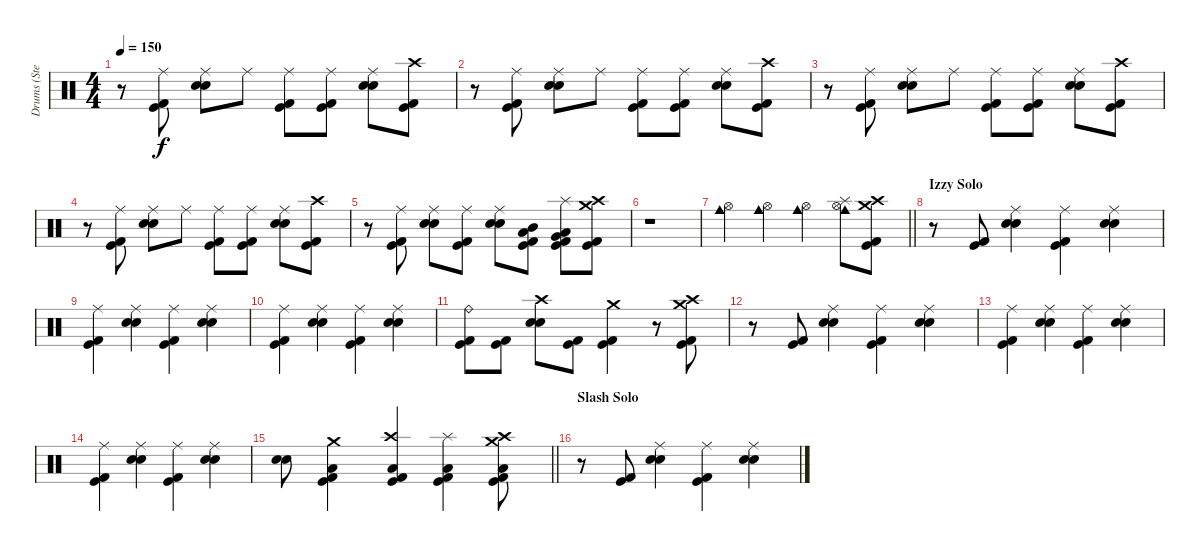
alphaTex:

\track ("Drums (Steven)" "Drums (Ste") {instrument percussion}
\staff {score}
\articulation defaults
\ts (4 4)
\tempo 150
\clef neutral
\ks c
r.8{dy f} ("Kick (hit) 2" "Kick (hit)" "Ride (middle)").8 ("Electric Snare (hit)" "Snare (hit) 2" "Ride (middle)").8 "Ride (middle)".8 ("Kick (hit) 2" "Kick (hit)" "Ride (middle)").8 ("Kick (hit) 2" "Kick (hit)" "Ride (middle)").8 ("Electric Snare (hit)" "Snare (hit) 2" "Ride (middle)").8 ("Kick (hit) 2" "Kick (hit)" "Crash high (hit)").8 |
r.8 ("Kick (hit) 2" "Kick (hit)" "Ride (middle)").8 ("Electric Snare (hit)" "Snare (hit) 2" "Ride (middle)").8 "Ride (middle)".8 ("Kick (hit) 2" "Kick (hit)" "Ride (middle)").8 ("Kick (hit) 2" "Kick (hit)" "Ride (middle)").8 ("Electric Snare (hit)" "Snare (hit) 2" "Ride (middle)").8 ("Kick (hit) 2" "Kick (hit)" "Crash high (hit)").8 |
r.8 ("Kick (hit) 2" "Kick (hit)" "Ride (middle)").8 ("Electric Snare (hit)" "Snare (hit) 2" "Ride (middle)").8 "Ride (middle)".8 ("Kick (hit) 2" "Kick (hit)" "Ride (middle)").8 ("Kick (hit) 2" "Kick (hit)" "Ride (middle)").8 ("Electric Snare (hit)" "Snare (hit) 2" "Ride (middle)").8 ("Kick (hit) 2" "Kick (hit)" "Crash high (hit)").8 |
r.8 ("Kick (hit) 2" "Kick (hit)" "Ride (middle)").8 ("Electric Snare (hit)" "Snare (hit) 2" "Ride (middle)").8 "Ride (middle)".8 ("Kick (hit) 2" "Kick (hit)" "Ride (middle)").8 ("Kick (hit) 2" "Kick (hit)" "Ride (middle)").8 ("Electric Snare (hit)" "Snare (hit) 2" "Ride (middle)").8 ("Kick (hit) 2" "Kick (hit)" "Crash high (hit)").8 |
r.8 ("Kick (hit) 2" "Kick (hit)" "Ride (middle)").8 ("Electric Snare (hit)" "Snare (hit) 2" "Ride (middle)").8 ("Kick (hit) 2" "Kick (hit)" "Ride (middle)").8 ("Electric Snare (hit)" "Snare (hit) 2" "Ride (middle)").8 ("Kick (hit) 2" "Kick (hit)" "Low Tom (hit)" "Mid Tom (hit)").8 ("Kick (hit) 2" "Kick (hit)" "Very Low Tom (hit)" "Low Floor Tom (hit)" "Splash (hit)").8 ("Kick (hit) 2" "Kick (hit)" "Crash medium (hit)" "Crash high (hit)").8 |
r.1 |
\barLineRight lightlight
("Hi-Hat (open)" "Cowbell medium (hit)").4 ("Hi-Hat (open)" "Cowbell medium (hit)").4 ("Hi-Hat (open)" "Cowbell medium (hit)").4 ("Hi-Hat (open)" "Cowbell medium (hit)" "Splash (hit)").8 ("Kick (hit) 2" "Kick (hit)" "Crash high (hit)" "Crash medium (hit)").8 |
\section ("" "Izzy Solo")
r.8 ("Kick (hit) 2" "Kick (hit)").8 ("Electric Snare (hit)" "Snare (hit) 2" "Ride (middle)").4 ("Kick (hit) 2" "Kick (hit)" "Ride (middle)").4 ("Electric Snare (hit)" "Snare (hit) 2" "Ride (middle)").4 |
("Kick (hit) 2" "Kick (hit)" "Ride (middle)").4 ("Electric Snare (hit)" "Snare (hit) 2" "Ride (middle)").4 ("Kick (hit) 2" "Kick (hit)" "Ride (middle)").4 ("Electric Snare (hit)" "Snare (hit) 2" "Ride (middle)").4 |
("Kick (hit) 2" "Kick (hit)" "Ride (middle)").4 ("Electric Snare (hit)" "Snare (hit) 2" "Ride (middle)").4 ("Kick (hit) 2" "Kick (hit)" "Ride (middle)").4 ("Electric Snare (hit)" "Snare (hit) 2" "Ride (middle)").4 |
("Kick (hit)" "Kick (hit) 2" "Ride (bell)").8 ("Kick (hit)" "Kick (hit) 2").8 ("Electric Snare (hit)" "Snare (hit) 2" "Crash high (hit)").8 ("Kick (hit)" "Kick (hit) 2").8 ("Kick (hit)" "Kick (hit) 2" "Crash medium (hit)").4 r.8 ("Kick (hit)" "Kick (hit) 2" "Crash medium (hit)" "Crash high (hit)").8 |
r.8 ("Kick (hit) 2" "Kick (hit)").8 ("Electric Snare (hit)" "Snare (hit) 2" "Ride (middle)").4 ("Kick (hit) 2" "Kick (hit)" "Ride (middle)").4 ("Electric Snare (hit)" "Snare (hit) 2" "Ride (middle)").4 |
("Kick (hit) 2" "Kick (hit)" "Ride (middle)").4 ("Electric Snare (hit)" "Snare (hit) 2" "Ride (middle)").4 ("Kick (hit) 2" "Kick (hit)" "Ride (middle)").4 ("Electric Snare (hit)" "Snare (hit) 2" "Ride (middle)").4 |
("Kick (hit) 2" "Kick (hit)" "Ride (middle)").4 ("Electric Snare (hit)" "Snare (hit) 2" "Ride (middle)").4 ("Kick (hit) 2" "Kick (hit)" "Ride (middle)").4 ("Electric Snare (hit)" "Snare (hit) 2" "Ride (middle)").4 |
\barLineRight lightlight
("Electric Snare (hit)" "Snare (hit) 2").8 ("Kick (hit) 2" "Kick (hit)" "Low Floor Tom (hit)" "Crash medium (hit)").4 ("Kick (hit) 2" "Kick (hit)" "Low Floor Tom (hit)" "Crash high (hit)").4 ("Kick (hit) 2" "Kick (hit)" "Low Floor Tom (hit)" "Splash (hit)").4 ("Kick (hit) 2" "Kick (hit)" "Low Floor Tom (hit)" "Crash medium (hit)" "Crash high (hit)").8 |
\section ("" "Slash Solo")
r.8 ("Kick (hit) 2" "Kick (hit)").8 ("Electric Snare (hit)" "Snare (hit) 2" "Ride (middle)").4 ("Kick (hit) 2" "Kick (hit)" "Ride (middle)").4 ("Electric Snare (hit)" "Snare (hit) 2" "Ride (middle)").4
